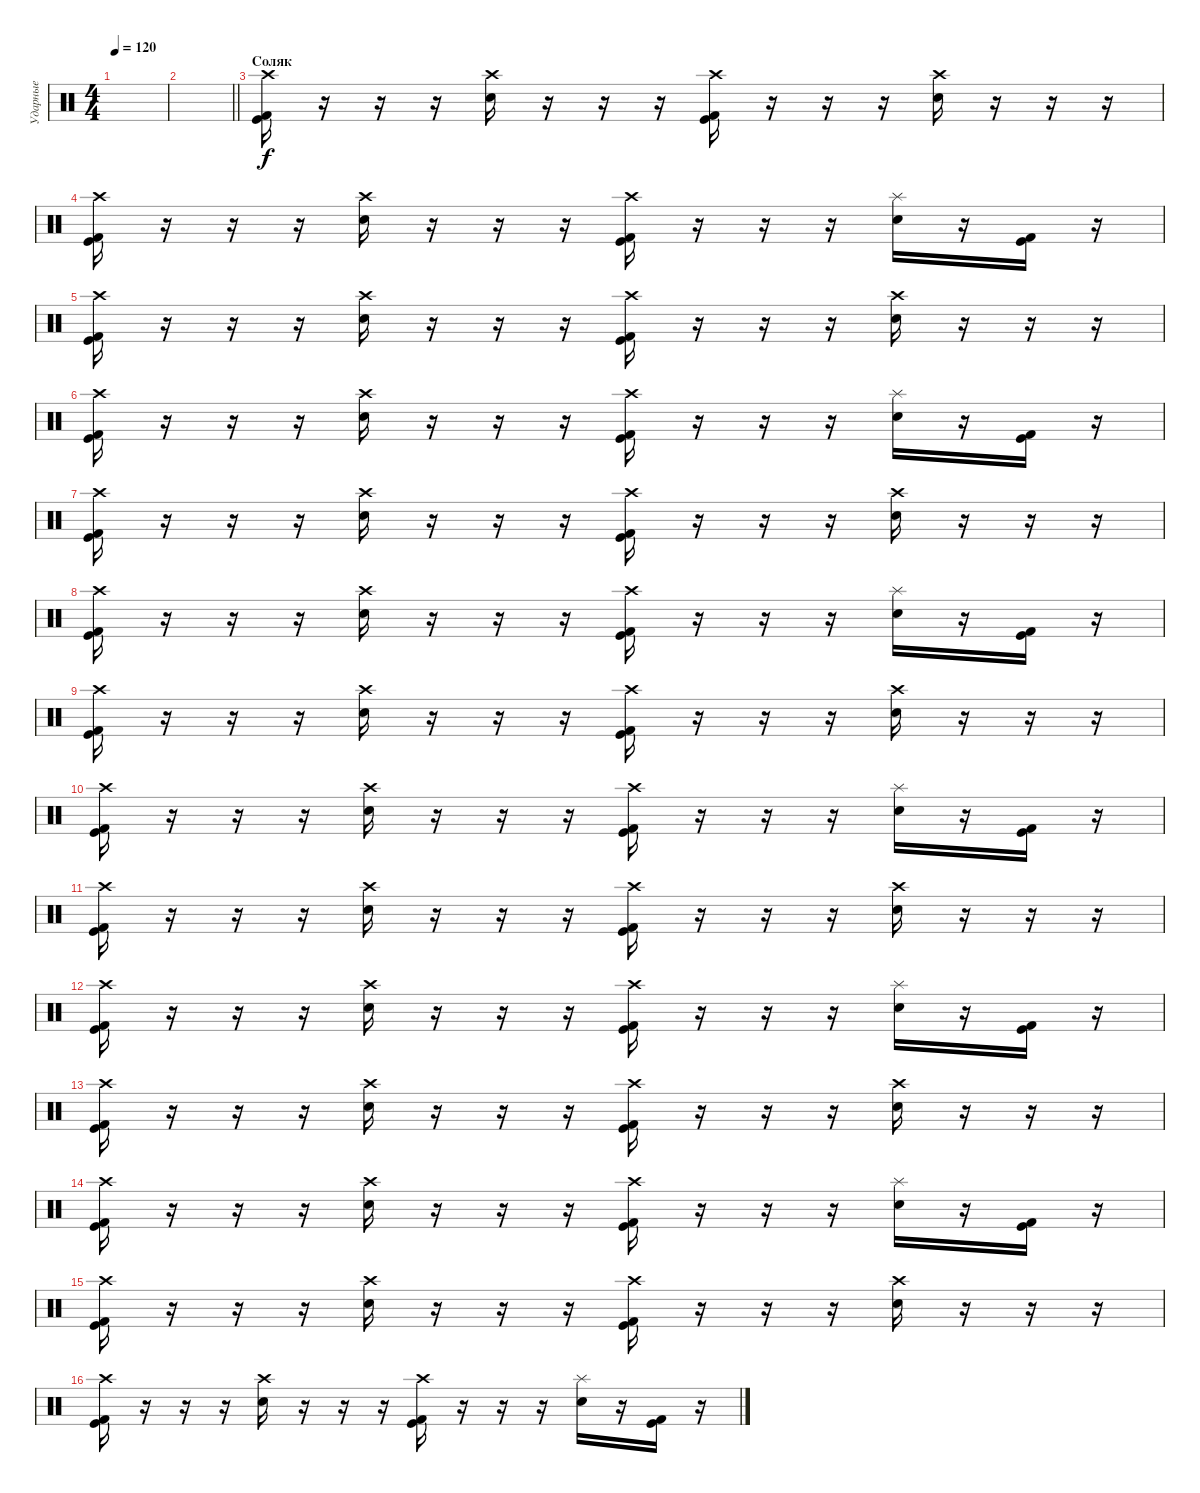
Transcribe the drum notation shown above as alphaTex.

\track ("Ударные" "Ударные") {instrument percussion}
\staff {score}
\articulation defaults
\ts (4 4)
\tempo 120
\clef neutral
\ks c
|
\barLineRight lightlight
|
\section ("" "Соляк")
("Crash high (hit)" "Kick (hit)" "Kick (hit) 2").16 r.16 r.16 r.16 ("Crash high (hit)" "Electric Snare (hit)").16 r.16 r.16 r.16 ("Crash high (hit)" "Kick (hit)" "Kick (hit) 2").16 r.16 r.16 r.16 ("Crash high (hit)" "Electric Snare (hit)").16 r.16 r.16 r.16 |
("Crash high (hit)" "Kick (hit) 2" "Kick (hit)").16 r.16 r.16 r.16 ("Crash high (hit)" "Electric Snare (hit)").16 r.16 r.16 r.16 ("Crash high (hit)" "Kick (hit) 2" "Kick (hit)").16 r.16 r.16 r.16 ("Splash (hit)" "Electric Snare (hit)").16 r.16 ("Kick (hit) 2" "Kick (hit)").16 r.16 |
("Crash high (hit)" "Kick (hit)" "Kick (hit) 2").16 r.16 r.16 r.16 ("Crash high (hit)" "Electric Snare (hit)").16 r.16 r.16 r.16 ("Crash high (hit)" "Kick (hit)" "Kick (hit) 2").16 r.16 r.16 r.16 ("Crash high (hit)" "Electric Snare (hit)").16 r.16 r.16 r.16 |
("Crash high (hit)" "Kick (hit) 2" "Kick (hit)").16 r.16 r.16 r.16 ("Crash high (hit)" "Electric Snare (hit)").16 r.16 r.16 r.16 ("Crash high (hit)" "Kick (hit) 2" "Kick (hit)").16 r.16 r.16 r.16 ("Splash (hit)" "Electric Snare (hit)").16 r.16 ("Kick (hit) 2" "Kick (hit)").16 r.16 |
("Crash high (hit)" "Kick (hit)" "Kick (hit) 2").16 r.16 r.16 r.16 ("Crash high (hit)" "Electric Snare (hit)").16 r.16 r.16 r.16 ("Crash high (hit)" "Kick (hit)" "Kick (hit) 2").16 r.16 r.16 r.16 ("Crash high (hit)" "Electric Snare (hit)").16 r.16 r.16 r.16 |
("Crash high (hit)" "Kick (hit) 2" "Kick (hit)").16 r.16 r.16 r.16 ("Crash high (hit)" "Electric Snare (hit)").16 r.16 r.16 r.16 ("Crash high (hit)" "Kick (hit) 2" "Kick (hit)").16 r.16 r.16 r.16 ("Splash (hit)" "Electric Snare (hit)").16 r.16 ("Kick (hit) 2" "Kick (hit)").16 r.16 |
("Crash high (hit)" "Kick (hit)" "Kick (hit) 2").16 r.16 r.16 r.16 ("Crash high (hit)" "Electric Snare (hit)").16 r.16 r.16 r.16 ("Crash high (hit)" "Kick (hit)" "Kick (hit) 2").16 r.16 r.16 r.16 ("Crash high (hit)" "Electric Snare (hit)").16 r.16 r.16 r.16 |
("Crash high (hit)" "Kick (hit) 2" "Kick (hit)").16 r.16 r.16 r.16 ("Crash high (hit)" "Electric Snare (hit)").16 r.16 r.16 r.16 ("Crash high (hit)" "Kick (hit) 2" "Kick (hit)").16 r.16 r.16 r.16 ("Splash (hit)" "Electric Snare (hit)").16 r.16 ("Kick (hit) 2" "Kick (hit)").16 r.16 |
("Crash high (hit)" "Kick (hit)" "Kick (hit) 2").16 r.16 r.16 r.16 ("Crash high (hit)" "Electric Snare (hit)").16 r.16 r.16 r.16 ("Crash high (hit)" "Kick (hit)" "Kick (hit) 2").16 r.16 r.16 r.16 ("Crash high (hit)" "Electric Snare (hit)").16 r.16 r.16 r.16 |
("Crash high (hit)" "Kick (hit) 2" "Kick (hit)").16 r.16 r.16 r.16 ("Crash high (hit)" "Electric Snare (hit)").16 r.16 r.16 r.16 ("Crash high (hit)" "Kick (hit) 2" "Kick (hit)").16 r.16 r.16 r.16 ("Splash (hit)" "Electric Snare (hit)").16 r.16 ("Kick (hit) 2" "Kick (hit)").16 r.16 |
("Crash high (hit)" "Kick (hit)" "Kick (hit) 2").16 r.16 r.16 r.16 ("Crash high (hit)" "Electric Snare (hit)").16 r.16 r.16 r.16 ("Crash high (hit)" "Kick (hit)" "Kick (hit) 2").16 r.16 r.16 r.16 ("Crash high (hit)" "Electric Snare (hit)").16 r.16 r.16 r.16 |
("Crash high (hit)" "Kick (hit) 2" "Kick (hit)").16 r.16 r.16 r.16 ("Crash high (hit)" "Electric Snare (hit)").16 r.16 r.16 r.16 ("Crash high (hit)" "Kick (hit) 2" "Kick (hit)").16 r.16 r.16 r.16 ("Splash (hit)" "Electric Snare (hit)").16 r.16 ("Kick (hit) 2" "Kick (hit)").16 r.16 |
("Crash high (hit)" "Kick (hit)" "Kick (hit) 2").16 r.16 r.16 r.16 ("Crash high (hit)" "Electric Snare (hit)").16 r.16 r.16 r.16 ("Crash high (hit)" "Kick (hit)" "Kick (hit) 2").16 r.16 r.16 r.16 ("Crash high (hit)" "Electric Snare (hit)").16 r.16 r.16 r.16 |
("Crash high (hit)" "Kick (hit) 2" "Kick (hit)").16 r.16 r.16 r.16 ("Crash high (hit)" "Electric Snare (hit)").16 r.16 r.16 r.16 ("Crash high (hit)" "Kick (hit) 2" "Kick (hit)").16 r.16 r.16 r.16 ("Splash (hit)" "Electric Snare (hit)").16 r.16 ("Kick (hit) 2" "Kick (hit)").16 r.16
